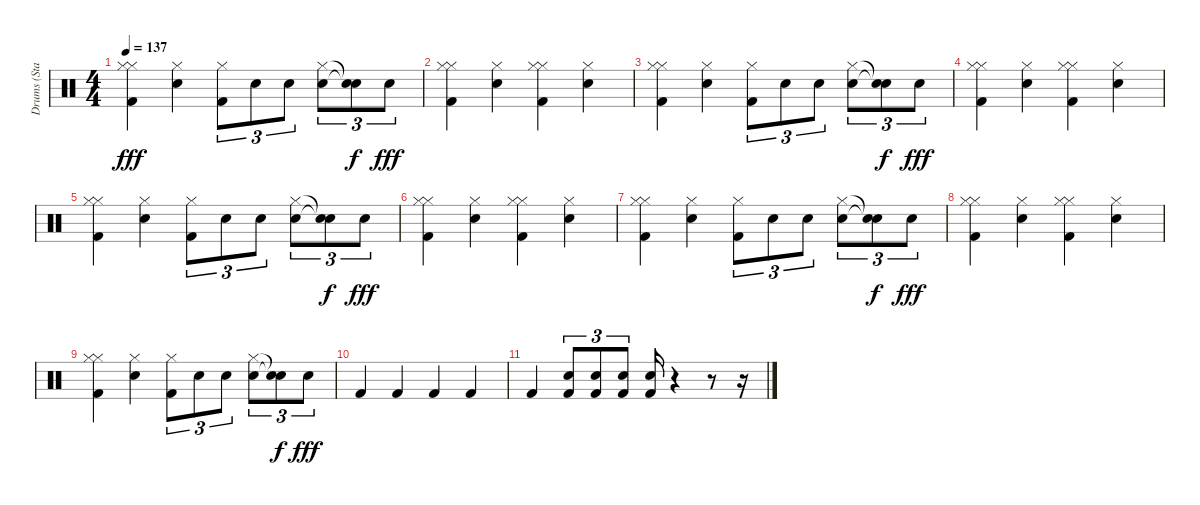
\track ("Drums (Standard Set)" "Drums (Sta") {instrument percussion}
\staff {score}
\articulation defaults
\ts (4 4)
\tempo 137
\clef neutral
\ks c
("Hi-Hat (closed)" "Kick (hit) 2" "Hi-Hat (closed)").4{dy fff} ("Snare (hit) 2" "Hi-Hat (closed)").4 ("Kick (hit) 2" "Hi-Hat (closed)").8{tu (3 2)} "Snare (hit) 2".8{tu (3 2)} "Snare (hit) 2".8{tu (3 2)} ("Snare (hit) 2" "Hi-Hat (closed)").8{tu (3 2)} ("Snare (hit)"{t} "Snare (hit)"{t}).8{tu (3 2) dy f} "Snare (hit) 2".8{tu (3 2) dy fff} |
("Hi-Hat (closed)" "Kick (hit) 2" "Hi-Hat (closed)").4 ("Snare (hit) 2" "Hi-Hat (closed)").4 ("Hi-Hat (closed)" "Kick (hit) 2" "Hi-Hat (closed)").4 ("Snare (hit) 2" "Hi-Hat (closed)").4 |
("Hi-Hat (closed)" "Kick (hit) 2" "Hi-Hat (closed)").4 ("Snare (hit) 2" "Hi-Hat (closed)").4 ("Kick (hit) 2" "Hi-Hat (closed)").8{tu (3 2)} "Snare (hit) 2".8{tu (3 2)} "Snare (hit) 2".8{tu (3 2)} ("Snare (hit) 2" "Hi-Hat (closed)").8{tu (3 2)} ("Snare (hit)"{t} "Snare (hit)"{t}).8{tu (3 2) dy f} "Snare (hit) 2".8{tu (3 2) dy fff} |
("Hi-Hat (closed)" "Kick (hit) 2" "Hi-Hat (closed)").4 ("Snare (hit) 2" "Hi-Hat (closed)").4 ("Hi-Hat (closed)" "Kick (hit) 2" "Hi-Hat (closed)").4 ("Snare (hit) 2" "Hi-Hat (closed)").4 |
("Hi-Hat (closed)" "Kick (hit) 2" "Hi-Hat (closed)").4 ("Snare (hit) 2" "Hi-Hat (closed)").4 ("Kick (hit) 2" "Hi-Hat (closed)").8{tu (3 2)} "Snare (hit) 2".8{tu (3 2)} "Snare (hit) 2".8{tu (3 2)} ("Snare (hit) 2" "Hi-Hat (closed)").8{tu (3 2)} ("Snare (hit)"{t} "Snare (hit)"{t}).8{tu (3 2) dy f} "Snare (hit) 2".8{tu (3 2) dy fff} |
("Hi-Hat (closed)" "Kick (hit) 2" "Hi-Hat (closed)").4 ("Snare (hit) 2" "Hi-Hat (closed)").4 ("Hi-Hat (closed)" "Kick (hit) 2" "Hi-Hat (closed)").4 ("Snare (hit) 2" "Hi-Hat (closed)").4 |
("Hi-Hat (closed)" "Kick (hit) 2" "Hi-Hat (closed)").4 ("Snare (hit) 2" "Hi-Hat (closed)").4 ("Kick (hit) 2" "Hi-Hat (closed)").8{tu (3 2)} "Snare (hit) 2".8{tu (3 2)} "Snare (hit) 2".8{tu (3 2)} ("Snare (hit) 2" "Hi-Hat (closed)").8{tu (3 2)} ("Snare (hit)"{t} "Snare (hit)"{t}).8{tu (3 2) dy f} "Snare (hit) 2".8{tu (3 2) dy fff} |
("Hi-Hat (closed)" "Kick (hit) 2" "Hi-Hat (closed)").4 ("Snare (hit) 2" "Hi-Hat (closed)").4 ("Hi-Hat (closed)" "Kick (hit) 2" "Hi-Hat (closed)").4 ("Snare (hit) 2" "Hi-Hat (closed)").4 |
("Hi-Hat (closed)" "Kick (hit) 2" "Hi-Hat (closed)").4 ("Snare (hit) 2" "Hi-Hat (closed)").4 ("Kick (hit) 2" "Hi-Hat (closed)").8{tu (3 2)} "Snare (hit) 2".8{tu (3 2)} "Snare (hit) 2".8{tu (3 2)} ("Snare (hit) 2" "Hi-Hat (closed)").8{tu (3 2)} ("Snare (hit)"{t} "Snare (hit)"{t}).8{tu (3 2) dy f} "Snare (hit) 2".8{tu (3 2) dy fff} |
"Kick (hit) 2".4 "Kick (hit) 2".4 "Kick (hit) 2".4 "Kick (hit) 2".4 |
"Kick (hit) 2".4 ("Kick (hit) 2" "Snare (hit) 2").8{tu (3 2)} ("Kick (hit) 2" "Snare (hit) 2").8{tu (3 2)} ("Snare (hit) 2" "Kick (hit) 2").8{tu (3 2)} ("Snare (hit) 2" "Kick (hit) 2").16 r.4 r.8 r.16
